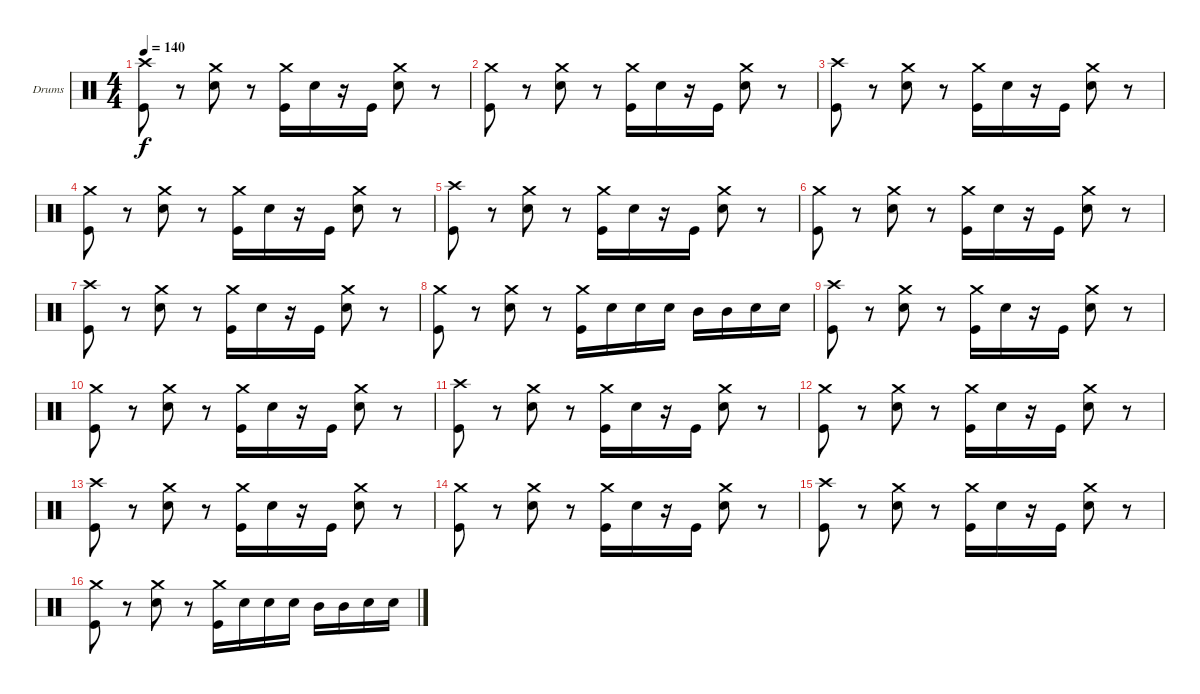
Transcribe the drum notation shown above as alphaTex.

\defaultSystemsLayout 4
\bracketExtendMode groupsimilarinstruments
\firstSystemTrackNameOrientation horizontal
\otherSystemsTrackNameOrientation horizontal
\track ("Drumkit" "Drums") {instrument percussion}
\staff {score}
\articulation defaults
\ts (4 4)
\tempo 140
\clef neutral
\scale
0.474178
\ks c
("Kick (hit)" "Crash high (hit)").8{dy f} r.8 ("Snare (hit) 2" "Crash medium (hit)").8 r.8 ("Kick (hit)" "Crash medium (hit)").16 "Snare (hit) 2".16 r.16 "Kick (hit)".16 ("Snare (hit) 2" "Crash medium (hit)").8 r.8 |
\scale
0.262911 ("Kick (hit)" "Crash medium (hit)").8 r.8 ("Snare (hit) 2" "Crash medium (hit)").8 r.8 ("Kick (hit)" "Crash medium (hit)").16 "Snare (hit) 2".16 r.16 "Kick (hit)".16 ("Snare (hit) 2" "Crash medium (hit)").8 r.8 |
\scale
0.262911 ("Kick (hit)" "Crash high (hit)").8 r.8 ("Snare (hit) 2" "Crash medium (hit)").8 r.8 ("Kick (hit)" "Crash medium (hit)").16 "Snare (hit) 2".16 r.16 "Kick (hit)".16 ("Snare (hit) 2" "Crash medium (hit)").8 r.8 |
\scale
0.333333 ("Kick (hit)" "Crash medium (hit)").8 r.8 ("Snare (hit) 2" "Crash medium (hit)").8 r.8 ("Kick (hit)" "Crash medium (hit)").16 "Snare (hit) 2".16 r.16 "Kick (hit)".16 ("Snare (hit) 2" "Crash medium (hit)").8 r.8 |
\scale
0.333333 ("Kick (hit)" "Crash high (hit)").8 r.8 ("Snare (hit) 2" "Crash medium (hit)").8 r.8 ("Kick (hit)" "Crash medium (hit)").16 "Snare (hit) 2".16 r.16 "Kick (hit)".16 ("Snare (hit) 2" "Crash medium (hit)").8 r.8 |
\scale
0.333333 ("Kick (hit)" "Crash medium (hit)").8 r.8 ("Snare (hit) 2" "Crash medium (hit)").8 r.8 ("Kick (hit)" "Crash medium (hit)").16 "Snare (hit) 2".16 r.16 "Kick (hit)".16 ("Snare (hit) 2" "Crash medium (hit)").8 r.8 |
\scale
0.333333 ("Kick (hit)" "Crash high (hit)").8 r.8 ("Snare (hit) 2" "Crash medium (hit)").8 r.8 ("Kick (hit)" "Crash medium (hit)").16 "Snare (hit) 2".16 r.16 "Kick (hit)".16 ("Snare (hit) 2" "Crash medium (hit)").8 r.8 |
\scale
0.333333 ("Kick (hit)" "Crash medium (hit)").8 r.8 ("Snare (hit) 2" "Crash medium (hit)").8 r.8 ("Kick (hit)" "Crash medium (hit)").16 "Snare (hit) 2".16 "Snare (hit) 2".16 "Snare (hit) 2".16 "Mid Tom (hit)".16 "Mid Tom (hit)".16 "Snare (hit) 2".16 "Snare (hit) 2".16 |
\scale
0.333333 ("Kick (hit)" "Crash high (hit)").8 r.8 ("Snare (hit) 2" "Crash medium (hit)").8 r.8 ("Kick (hit)" "Crash medium (hit)").16 "Snare (hit) 2".16 r.16 "Kick (hit)".16 ("Snare (hit) 2" "Crash medium (hit)").8 r.8 |
\scale
0.333333 ("Kick (hit)" "Crash medium (hit)").8 r.8 ("Snare (hit) 2" "Crash medium (hit)").8 r.8 ("Kick (hit)" "Crash medium (hit)").16 "Snare (hit) 2".16 r.16 "Kick (hit)".16 ("Snare (hit) 2" "Crash medium (hit)").8 r.8 |
\scale
0.333333 ("Kick (hit)" "Crash high (hit)").8 r.8 ("Snare (hit) 2" "Crash medium (hit)").8 r.8 ("Kick (hit)" "Crash medium (hit)").16 "Snare (hit) 2".16 r.16 "Kick (hit)".16 ("Snare (hit) 2" "Crash medium (hit)").8 r.8 |
\scale
0.333333 ("Kick (hit)" "Crash medium (hit)").8 r.8 ("Snare (hit) 2" "Crash medium (hit)").8 r.8 ("Kick (hit)" "Crash medium (hit)").16 "Snare (hit) 2".16 r.16 "Kick (hit)".16 ("Snare (hit) 2" "Crash medium (hit)").8 r.8 |
("Kick (hit)" "Crash high (hit)").8 r.8 ("Snare (hit) 2" "Crash medium (hit)").8 r.8 ("Kick (hit)" "Crash medium (hit)").16 "Snare (hit) 2".16 r.16 "Kick (hit)".16 ("Snare (hit) 2" "Crash medium (hit)").8 r.8 |
("Kick (hit)" "Crash medium (hit)").8 r.8 ("Snare (hit) 2" "Crash medium (hit)").8 r.8 ("Kick (hit)" "Crash medium (hit)").16 "Snare (hit) 2".16 r.16 "Kick (hit)".16 ("Snare (hit) 2" "Crash medium (hit)").8 r.8 |
("Kick (hit)" "Crash high (hit)").8 r.8 ("Snare (hit) 2" "Crash medium (hit)").8 r.8 ("Kick (hit)" "Crash medium (hit)").16 "Snare (hit) 2".16 r.16 "Kick (hit)".16 ("Snare (hit) 2" "Crash medium (hit)").8 r.8 |
("Kick (hit)" "Crash medium (hit)").8 r.8 ("Snare (hit) 2" "Crash medium (hit)").8 r.8 ("Kick (hit)" "Crash medium (hit)").16 "Snare (hit) 2".16 "Snare (hit) 2".16 "Snare (hit) 2".16 "Mid Tom (hit)".16 "Mid Tom (hit)".16 "Snare (hit) 2".16 "Snare (hit) 2".16
